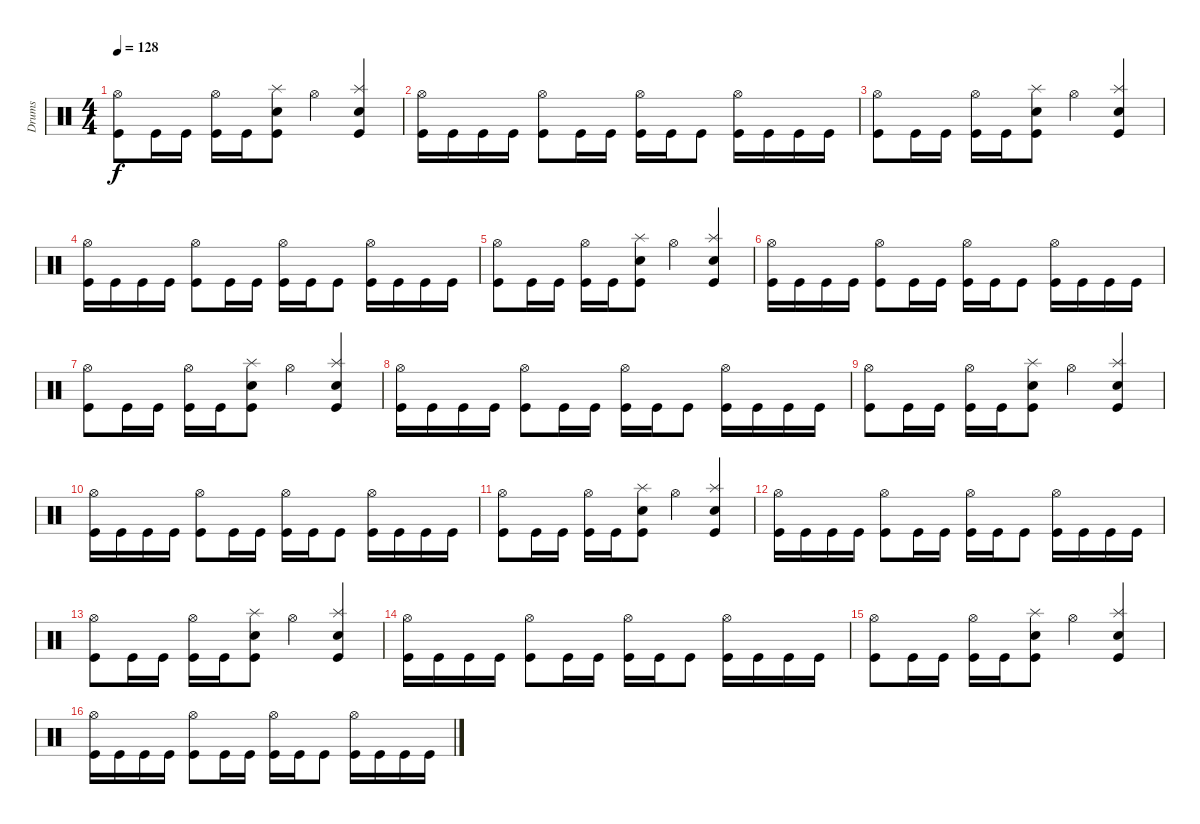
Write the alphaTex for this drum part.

\track ("Drums" "Drums") {instrument percussion}
\staff {score}
\articulation defaults
\ts (4 4)
\tempo 128
\clef neutral
\ks c
("Hi-Hat (open)" "Kick (hit)").8{dy f} "Kick (hit)".16 "Kick (hit)".16 ("Hi-Hat (open)" "Kick (hit)").16 "Kick (hit)".16 ("Splash (hit)" "Snare (hit) 2" "Kick (hit)").8 "Hi-Hat (open)".4 ("Splash (hit)" "Snare (hit) 2" "Kick (hit)").4 |
("Hi-Hat (open)" "Kick (hit)").16 "Kick (hit)".16 "Kick (hit)".16 "Kick (hit)".16 ("Hi-Hat (open)" "Kick (hit)").8 "Kick (hit)".16 "Kick (hit)".16 ("Hi-Hat (open)" "Kick (hit)").16 "Kick (hit)".16 "Kick (hit)".8 ("Hi-Hat (open)" "Kick (hit)").16 "Kick (hit)".16 "Kick (hit)".16 "Kick (hit)".16 |
("Hi-Hat (open)" "Kick (hit)").8 "Kick (hit)".16 "Kick (hit)".16 ("Hi-Hat (open)" "Kick (hit)").16 "Kick (hit)".16 ("Splash (hit)" "Snare (hit) 2" "Kick (hit)").8 "Hi-Hat (open)".4 ("Splash (hit)" "Snare (hit) 2" "Kick (hit)").4 |
("Hi-Hat (open)" "Kick (hit)").16 "Kick (hit)".16 "Kick (hit)".16 "Kick (hit)".16 ("Hi-Hat (open)" "Kick (hit)").8 "Kick (hit)".16 "Kick (hit)".16 ("Hi-Hat (open)" "Kick (hit)").16 "Kick (hit)".16 "Kick (hit)".8 ("Hi-Hat (open)" "Kick (hit)").16 "Kick (hit)".16 "Kick (hit)".16 "Kick (hit)".16 |
("Hi-Hat (open)" "Kick (hit)").8 "Kick (hit)".16 "Kick (hit)".16 ("Hi-Hat (open)" "Kick (hit)").16 "Kick (hit)".16 ("Splash (hit)" "Snare (hit) 2" "Kick (hit)").8 "Hi-Hat (open)".4 ("Splash (hit)" "Snare (hit) 2" "Kick (hit)").4 |
("Hi-Hat (open)" "Kick (hit)").16 "Kick (hit)".16 "Kick (hit)".16 "Kick (hit)".16 ("Hi-Hat (open)" "Kick (hit)").8 "Kick (hit)".16 "Kick (hit)".16 ("Hi-Hat (open)" "Kick (hit)").16 "Kick (hit)".16 "Kick (hit)".8 ("Hi-Hat (open)" "Kick (hit)").16 "Kick (hit)".16 "Kick (hit)".16 "Kick (hit)".16 |
("Hi-Hat (open)" "Kick (hit)").8 "Kick (hit)".16 "Kick (hit)".16 ("Hi-Hat (open)" "Kick (hit)").16 "Kick (hit)".16 ("Splash (hit)" "Snare (hit) 2" "Kick (hit)").8 "Hi-Hat (open)".4 ("Splash (hit)" "Snare (hit) 2" "Kick (hit)").4 |
("Hi-Hat (open)" "Kick (hit)").16 "Kick (hit)".16 "Kick (hit)".16 "Kick (hit)".16 ("Hi-Hat (open)" "Kick (hit)").8 "Kick (hit)".16 "Kick (hit)".16 ("Hi-Hat (open)" "Kick (hit)").16 "Kick (hit)".16 "Kick (hit)".8 ("Hi-Hat (open)" "Kick (hit)").16 "Kick (hit)".16 "Kick (hit)".16 "Kick (hit)".16 |
("Hi-Hat (open)" "Kick (hit)").8 "Kick (hit)".16 "Kick (hit)".16 ("Hi-Hat (open)" "Kick (hit)").16 "Kick (hit)".16 ("Splash (hit)" "Snare (hit) 2" "Kick (hit)").8 "Hi-Hat (open)".4 ("Splash (hit)" "Snare (hit) 2" "Kick (hit)").4 |
("Hi-Hat (open)" "Kick (hit)").16 "Kick (hit)".16 "Kick (hit)".16 "Kick (hit)".16 ("Hi-Hat (open)" "Kick (hit)").8 "Kick (hit)".16 "Kick (hit)".16 ("Hi-Hat (open)" "Kick (hit)").16 "Kick (hit)".16 "Kick (hit)".8 ("Hi-Hat (open)" "Kick (hit)").16 "Kick (hit)".16 "Kick (hit)".16 "Kick (hit)".16 |
("Hi-Hat (open)" "Kick (hit)").8 "Kick (hit)".16 "Kick (hit)".16 ("Hi-Hat (open)" "Kick (hit)").16 "Kick (hit)".16 ("Splash (hit)" "Snare (hit) 2" "Kick (hit)").8 "Hi-Hat (open)".4 ("Splash (hit)" "Snare (hit) 2" "Kick (hit)").4 |
("Hi-Hat (open)" "Kick (hit)").16 "Kick (hit)".16 "Kick (hit)".16 "Kick (hit)".16 ("Hi-Hat (open)" "Kick (hit)").8 "Kick (hit)".16 "Kick (hit)".16 ("Hi-Hat (open)" "Kick (hit)").16 "Kick (hit)".16 "Kick (hit)".8 ("Hi-Hat (open)" "Kick (hit)").16 "Kick (hit)".16 "Kick (hit)".16 "Kick (hit)".16 |
("Hi-Hat (open)" "Kick (hit)").8 "Kick (hit)".16 "Kick (hit)".16 ("Hi-Hat (open)" "Kick (hit)").16 "Kick (hit)".16 ("Splash (hit)" "Snare (hit) 2" "Kick (hit)").8 "Hi-Hat (open)".4 ("Splash (hit)" "Snare (hit) 2" "Kick (hit)").4 |
("Hi-Hat (open)" "Kick (hit)").16 "Kick (hit)".16 "Kick (hit)".16 "Kick (hit)".16 ("Hi-Hat (open)" "Kick (hit)").8 "Kick (hit)".16 "Kick (hit)".16 ("Hi-Hat (open)" "Kick (hit)").16 "Kick (hit)".16 "Kick (hit)".8 ("Hi-Hat (open)" "Kick (hit)").16 "Kick (hit)".16 "Kick (hit)".16 "Kick (hit)".16 |
("Hi-Hat (open)" "Kick (hit)").8 "Kick (hit)".16 "Kick (hit)".16 ("Hi-Hat (open)" "Kick (hit)").16 "Kick (hit)".16 ("Splash (hit)" "Snare (hit) 2" "Kick (hit)").8 "Hi-Hat (open)".4 ("Splash (hit)" "Snare (hit) 2" "Kick (hit)").4 |
("Hi-Hat (open)" "Kick (hit)").16 "Kick (hit)".16 "Kick (hit)".16 "Kick (hit)".16 ("Hi-Hat (open)" "Kick (hit)").8 "Kick (hit)".16 "Kick (hit)".16 ("Hi-Hat (open)" "Kick (hit)").16 "Kick (hit)".16 "Kick (hit)".8 ("Hi-Hat (open)" "Kick (hit)").16 "Kick (hit)".16 "Kick (hit)".16 "Kick (hit)".16
